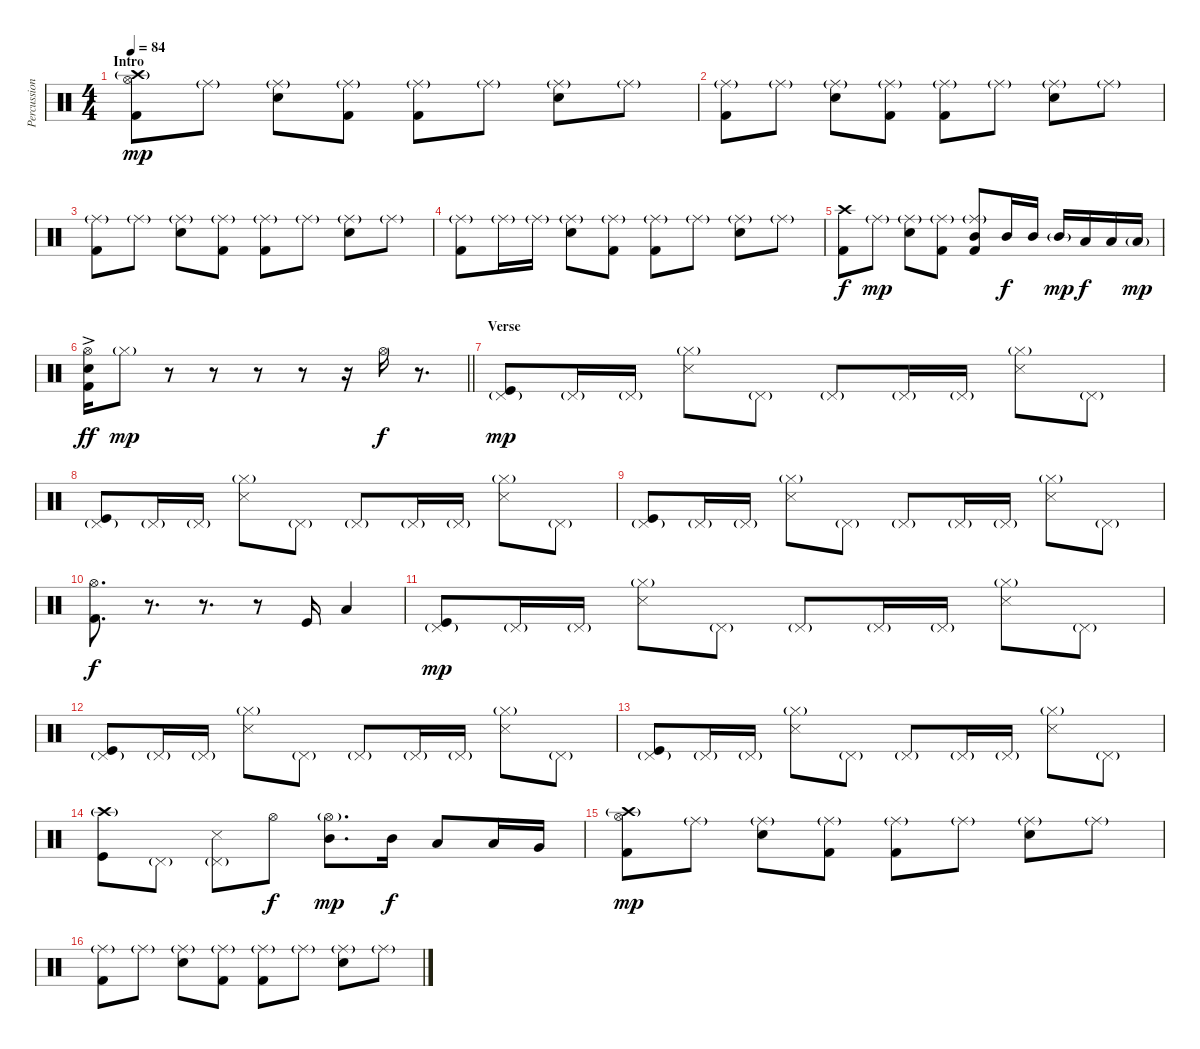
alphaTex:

\track ("Percussion" "Percussion") {instrument percussion}
\staff {score}
\articulation defaults
\ts (4 4)
\section ("" "Intro")
\tempo 84
\clef neutral
\ks c
("Crash high (hit)"{g} "Hi-Hat (open)" "Kick (hit) 2").8{dy mp} "Ride (middle)"{g}.8 ("Ride (middle)"{g} "Electric Snare (hit)").8 ("Ride (middle)"{g} "Kick (hit) 2").8 ("Ride (middle)"{g} "Kick (hit) 2").8 "Ride (middle)"{g}.8 ("Ride (middle)"{g} "Electric Snare (hit)").8 "Ride (middle)"{g}.8 |
("Ride (middle)"{g} "Kick (hit) 2").8 "Ride (middle)"{g}.8 ("Ride (middle)"{g} "Electric Snare (hit)").8 ("Ride (middle)"{g} "Kick (hit) 2").8 ("Ride (middle)"{g} "Kick (hit) 2").8 "Ride (middle)"{g}.8 ("Ride (middle)"{g} "Electric Snare (hit)").8 "Ride (middle)"{g}.8 |
("Ride (middle)"{g} "Kick (hit) 2").8 "Ride (middle)"{g}.8 ("Ride (middle)"{g} "Electric Snare (hit)").8 ("Ride (middle)"{g} "Kick (hit) 2").8 ("Ride (middle)"{g} "Kick (hit) 2").8 "Ride (middle)"{g}.8 ("Ride (middle)"{g} "Electric Snare (hit)").8 "Ride (middle)"{g}.8 |
("Ride (middle)"{g} "Kick (hit) 2").8 "Ride (middle)"{g}.16 "Ride (middle)"{g}.16 ("Ride (middle)"{g} "Electric Snare (hit)").8 ("Ride (middle)"{g} "Kick (hit) 2").8 ("Ride (middle)"{g} "Kick (hit) 2").8 "Ride (middle)"{g}.8 ("Ride (middle)"{g} "Electric Snare (hit)").8 "Ride (middle)"{g}.8 |
("Crash high (hit)" "Kick (hit) 2").8{dy f} "Ride (middle)"{g}.8{dy mp} ("Ride (middle)"{g} "Electric Snare (hit)").8 ("Ride (middle)"{g} "Kick (hit) 2").8 ("Ride (middle)"{g} "Mid Tom (hit)" "Kick (hit) 2").8 "Mid Tom (hit)".16{dy f} "Mid Tom (hit)".16 "Mid Tom (hit)"{g}.16{dy mp} "Low Tom (hit)".16{dy f} "Low Tom (hit)".16 "Low Tom (hit)"{g}.16{dy mp} |
\barLineRight lightlight
("Hi-Hat (open)"{ac} "Electric Snare (hit)"{ac} "Kick (hit) 2"{ac}).16{dy ff} "Hi-Hat (closed)"{g}.8{dy mp} r.8 r.8 r.8 r.8 r.16 "Hi-Hat (open)".16{dy f} r.8{d} |
\section ("" "Verse")
("Pedal Hi-Hat (hit)"{g} "Kick (hit)").8{dy mp} "Pedal Hi-Hat (hit)"{g}.16 "Pedal Hi-Hat (hit)"{g}.16 ("Hi-Hat (closed)"{g} "Snare (side stick) 3").8 "Pedal Hi-Hat (hit)"{g}.8 "Pedal Hi-Hat (hit)"{g}.8 "Pedal Hi-Hat (hit)"{g}.16 "Pedal Hi-Hat (hit)"{g}.16 ("Hi-Hat (closed)"{g} "Snare (side stick) 3").8 "Pedal Hi-Hat (hit)"{g}.8 |
("Pedal Hi-Hat (hit)"{g} "Kick (hit)").8 "Pedal Hi-Hat (hit)"{g}.16 "Pedal Hi-Hat (hit)"{g}.16 ("Hi-Hat (closed)"{g} "Snare (side stick) 3").8 "Pedal Hi-Hat (hit)"{g}.8 "Pedal Hi-Hat (hit)"{g}.8 "Pedal Hi-Hat (hit)"{g}.16 "Pedal Hi-Hat (hit)"{g}.16 ("Hi-Hat (closed)"{g} "Snare (side stick) 3").8 "Pedal Hi-Hat (hit)"{g}.8 |
("Pedal Hi-Hat (hit)"{g} "Kick (hit)").8 "Pedal Hi-Hat (hit)"{g}.16 "Pedal Hi-Hat (hit)"{g}.16 ("Hi-Hat (closed)"{g} "Snare (side stick) 3").8 "Pedal Hi-Hat (hit)"{g}.8 "Pedal Hi-Hat (hit)"{g}.8 "Pedal Hi-Hat (hit)"{g}.16 "Pedal Hi-Hat (hit)"{g}.16 ("Hi-Hat (closed)"{g} "Snare (side stick) 3").8 "Pedal Hi-Hat (hit)"{g}.8 |
("Hi-Hat (open)" "Kick (hit) 2").8{d dy f} r.8{d} r.8{d} r.8 "Kick (hit)".16 "Low Tom (hit)".4 |
("Pedal Hi-Hat (hit)"{g} "Kick (hit)").8{dy mp} "Pedal Hi-Hat (hit)"{g}.16 "Pedal Hi-Hat (hit)"{g}.16 ("Hi-Hat (closed)"{g} "Snare (side stick) 3").8 "Pedal Hi-Hat (hit)"{g}.8 "Pedal Hi-Hat (hit)"{g}.8 "Pedal Hi-Hat (hit)"{g}.16 "Pedal Hi-Hat (hit)"{g}.16 ("Hi-Hat (closed)"{g} "Snare (side stick) 3").8 "Pedal Hi-Hat (hit)"{g}.8 |
("Pedal Hi-Hat (hit)"{g} "Kick (hit)").8 "Pedal Hi-Hat (hit)"{g}.16 "Pedal Hi-Hat (hit)"{g}.16 ("Hi-Hat (closed)"{g} "Snare (side stick) 3").8 "Pedal Hi-Hat (hit)"{g}.8 "Pedal Hi-Hat (hit)"{g}.8 "Pedal Hi-Hat (hit)"{g}.16 "Pedal Hi-Hat (hit)"{g}.16 ("Hi-Hat (closed)"{g} "Snare (side stick) 3").8 "Pedal Hi-Hat (hit)"{g}.8 |
("Pedal Hi-Hat (hit)"{g} "Kick (hit)").8 "Pedal Hi-Hat (hit)"{g}.16 "Pedal Hi-Hat (hit)"{g}.16 ("Hi-Hat (closed)"{g} "Snare (side stick) 3").8 "Pedal Hi-Hat (hit)"{g}.8 "Pedal Hi-Hat (hit)"{g}.8 "Pedal Hi-Hat (hit)"{g}.16 "Pedal Hi-Hat (hit)"{g}.16 ("Hi-Hat (closed)"{g} "Snare (side stick) 3").8 "Pedal Hi-Hat (hit)"{g}.8 |
("Crash high (hit)"{g} "Kick (hit)").8 "Pedal Hi-Hat (hit)"{g}.8 ("Pedal Hi-Hat (hit)"{g} "Snare (side stick) 3").8 "Hi-Hat (open)".8{dy f} ("Hi-Hat (open)"{g} "Mid Tom (hit)").8{d dy mp} "Mid Tom (hit)".16{dy f} "Low Tom (hit)".8 "Low Tom (hit)".16 "Very Low Tom (hit)".16 |
("Crash high (hit)"{g} "Hi-Hat (open)" "Kick (hit) 2").8{dy mp} "Ride (middle)"{g}.8 ("Ride (middle)"{g} "Electric Snare (hit)").8 ("Ride (middle)"{g} "Kick (hit) 2").8 ("Ride (middle)"{g} "Kick (hit) 2").8 "Ride (middle)"{g}.8 ("Ride (middle)"{g} "Electric Snare (hit)").8 "Ride (middle)"{g}.8 |
("Ride (middle)"{g} "Kick (hit) 2").8 "Ride (middle)"{g}.8 ("Ride (middle)"{g} "Electric Snare (hit)").8 ("Ride (middle)"{g} "Kick (hit) 2").8 ("Ride (middle)"{g} "Kick (hit) 2").8 "Ride (middle)"{g}.8 ("Ride (middle)"{g} "Electric Snare (hit)").8 "Ride (middle)"{g}.8
